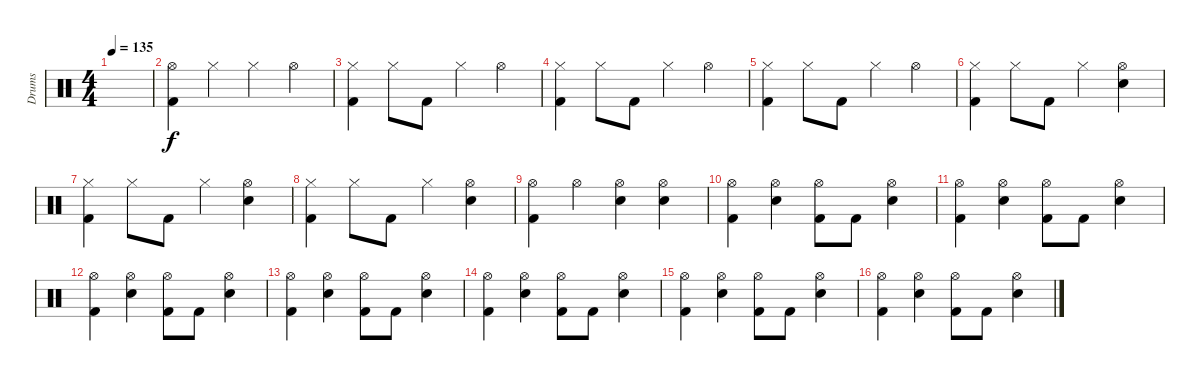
\track ("Drums" "Drums") {instrument percussion}
\staff {score}
\articulation defaults
\ts (4 4)
\tempo 135
\clef neutral
\ks c
|
("Hi-Hat (open)" "Kick (hit) 2").4 "Hi-Hat (closed)".4 "Hi-Hat (closed)".4 "Hi-Hat (open)".4 |
("Hi-Hat (closed)" "Kick (hit) 2").4 "Hi-Hat (closed)".8 "Kick (hit) 2".8 "Hi-Hat (closed)".4 "Hi-Hat (open)".4 |
("Hi-Hat (closed)" "Kick (hit) 2").4 "Hi-Hat (closed)".8 "Kick (hit) 2".8 "Hi-Hat (closed)".4 "Hi-Hat (open)".4 |
("Hi-Hat (closed)" "Kick (hit) 2").4 "Hi-Hat (closed)".8 "Kick (hit) 2".8 "Hi-Hat (closed)".4 "Hi-Hat (open)".4 |
("Hi-Hat (closed)" "Kick (hit) 2").4 "Hi-Hat (closed)".8 "Kick (hit) 2".8 "Hi-Hat (closed)".4 ("Hi-Hat (open)" "Electric Snare (hit)").4 |
("Hi-Hat (closed)" "Kick (hit) 2").4 "Hi-Hat (closed)".8 "Kick (hit) 2".8 "Hi-Hat (closed)".4 ("Hi-Hat (open)" "Electric Snare (hit)").4 |
("Hi-Hat (closed)" "Kick (hit) 2").4 "Hi-Hat (closed)".8 "Kick (hit) 2".8 "Hi-Hat (closed)".4 ("Hi-Hat (open)" "Electric Snare (hit)").4 |
("Hi-Hat (open)" "Kick (hit) 2").4 "Hi-Hat (open)".4 ("Hi-Hat (open)" "Electric Snare (hit)").4 ("Hi-Hat (open)" "Electric Snare (hit)").4 |
("Hi-Hat (open)" "Kick (hit) 2").4 ("Hi-Hat (open)" "Electric Snare (hit)").4 ("Hi-Hat (open)" "Kick (hit) 2").8 "Kick (hit) 2".8 ("Hi-Hat (open)" "Electric Snare (hit)").4 |
("Hi-Hat (open)" "Kick (hit) 2").4 ("Hi-Hat (open)" "Electric Snare (hit)").4 ("Hi-Hat (open)" "Kick (hit) 2").8 "Kick (hit) 2".8 ("Hi-Hat (open)" "Electric Snare (hit)").4 |
("Hi-Hat (open)" "Kick (hit) 2").4 ("Hi-Hat (open)" "Electric Snare (hit)").4 ("Hi-Hat (open)" "Kick (hit) 2").8 "Kick (hit) 2".8 ("Hi-Hat (open)" "Electric Snare (hit)").4 |
("Hi-Hat (open)" "Kick (hit) 2").4 ("Hi-Hat (open)" "Electric Snare (hit)").4 ("Hi-Hat (open)" "Kick (hit) 2").8 "Kick (hit) 2".8 ("Hi-Hat (open)" "Electric Snare (hit)").4 |
("Hi-Hat (open)" "Kick (hit) 2").4 ("Hi-Hat (open)" "Electric Snare (hit)").4 ("Hi-Hat (open)" "Kick (hit) 2").8 "Kick (hit) 2".8 ("Hi-Hat (open)" "Electric Snare (hit)").4 |
("Hi-Hat (open)" "Kick (hit) 2").4 ("Hi-Hat (open)" "Electric Snare (hit)").4 ("Hi-Hat (open)" "Kick (hit) 2").8 "Kick (hit) 2".8 ("Hi-Hat (open)" "Electric Snare (hit)").4 |
("Hi-Hat (open)" "Kick (hit) 2").4 ("Hi-Hat (open)" "Electric Snare (hit)").4 ("Hi-Hat (open)" "Kick (hit) 2").8 "Kick (hit) 2".8 ("Hi-Hat (open)" "Electric Snare (hit)").4
